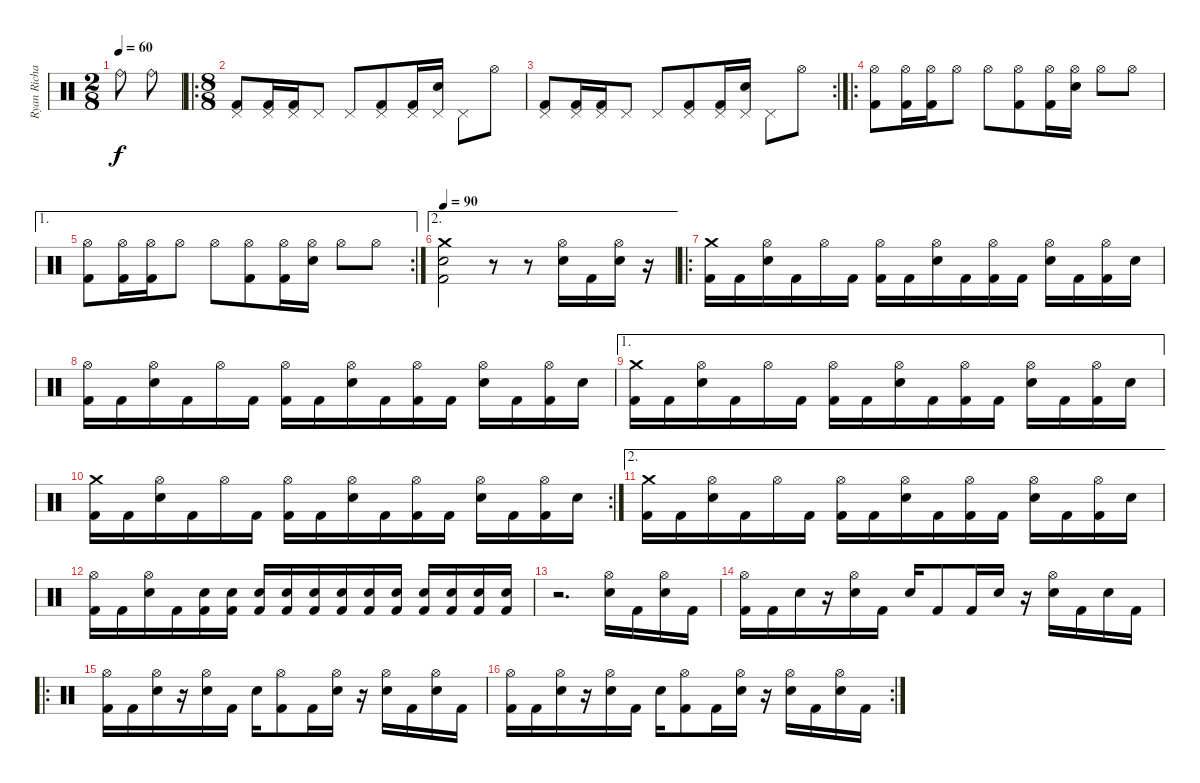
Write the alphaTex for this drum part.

\track ("Ryan Richards" "Ryan Richa") {instrument percussion}
\staff {score}
\articulation defaults
\ts (2 8)
\tempo 60
\clef neutral
\ks c "Ride (bell)".8{dy f} "Ride (bell)".8
|
\ro
\ts (8 8)
("Pedal Hi-Hat (hit)" "Kick (hit) 2").8 ("Pedal Hi-Hat (hit)" "Kick (hit) 2").16 ("Pedal Hi-Hat (hit)" "Kick (hit) 2").16 "Pedal Hi-Hat (hit)".8 "Pedal Hi-Hat (hit)".8 ("Pedal Hi-Hat (hit)" "Kick (hit) 2").8 ("Pedal Hi-Hat (hit)" "Kick (hit) 2").16 ("Pedal Hi-Hat (hit)" "Snare (hit) 2").16 "Pedal Hi-Hat (hit)".8 "Hi-Hat (open)".8 |
\rc 2
("Pedal Hi-Hat (hit)" "Kick (hit) 2").8 ("Pedal Hi-Hat (hit)" "Kick (hit) 2").16 ("Pedal Hi-Hat (hit)" "Kick (hit) 2").16 "Pedal Hi-Hat (hit)".8 "Pedal Hi-Hat (hit)".8 ("Pedal Hi-Hat (hit)" "Kick (hit) 2").8 ("Pedal Hi-Hat (hit)" "Kick (hit) 2").16 ("Pedal Hi-Hat (hit)" "Snare (hit) 2").16 "Pedal Hi-Hat (hit)".8 "Hi-Hat (open)".8 |
\ro
("Hi-Hat (open)" "Kick (hit) 2").8 ("Hi-Hat (open)" "Kick (hit) 2").16 ("Hi-Hat (open)" "Kick (hit) 2").16 "Hi-Hat (open)".8 "Hi-Hat (open)".8 ("Hi-Hat (open)" "Kick (hit) 2").8 ("Hi-Hat (open)" "Kick (hit) 2").16 ("Hi-Hat (open)" "Snare (hit) 2").16 "Hi-Hat (open)".8 "Hi-Hat (open)".8 |
\ae 1
\rc 2
("Hi-Hat (open)" "Kick (hit) 2").8 ("Hi-Hat (open)" "Kick (hit) 2").16 ("Hi-Hat (open)" "Kick (hit) 2").16 "Hi-Hat (open)".8 "Hi-Hat (open)".8 ("Hi-Hat (open)" "Kick (hit) 2").8 ("Hi-Hat (open)" "Kick (hit) 2").16 ("Hi-Hat (open)" "Snare (hit) 2").16 "Hi-Hat (open)".8 "Hi-Hat (open)".8 |
\ae 2
\tempo 90
("Crash medium (hit)" "Snare (hit) 2" "Kick (hit) 2").2 r.8 r.8 ("Hi-Hat (open)" "Snare (hit) 2").16 "Kick (hit) 2".16 ("Hi-Hat (open)" "Snare (hit) 2").16 r.16 |
\ro
("Crash medium (hit)" "Kick (hit) 2").16 "Kick (hit) 2".16 ("Hi-Hat (open)" "Snare (hit) 2").16 "Kick (hit) 2".16 "Hi-Hat (open)".16 "Kick (hit) 2".16 ("Hi-Hat (open)" "Kick (hit) 2").16 "Kick (hit) 2".16 ("Hi-Hat (open)" "Snare (hit) 2").16 "Kick (hit) 2".16 ("Hi-Hat (open)" "Kick (hit) 2").16 "Kick (hit) 2".16 ("Hi-Hat (open)" "Snare (hit) 2").16 "Kick (hit) 2".16 ("Hi-Hat (open)" "Kick (hit) 2").16 "Snare (hit) 2".16 |
("Hi-Hat (open)" "Kick (hit) 2").16 "Kick (hit) 2".16 ("Hi-Hat (open)" "Snare (hit) 2").16 "Kick (hit) 2".16 "Hi-Hat (open)".16 "Kick (hit) 2".16 ("Hi-Hat (open)" "Kick (hit) 2").16 "Kick (hit) 2".16 ("Hi-Hat (open)" "Snare (hit) 2").16 "Kick (hit) 2".16 ("Hi-Hat (open)" "Kick (hit) 2").16 "Kick (hit) 2".16 ("Hi-Hat (open)" "Snare (hit) 2").16 "Kick (hit) 2".16 ("Hi-Hat (open)" "Kick (hit) 2").16 "Snare (hit) 2".16 |
\ae 1
("Crash medium (hit)" "Kick (hit) 2").16 "Kick (hit) 2".16 ("Hi-Hat (open)" "Snare (hit) 2").16 "Kick (hit) 2".16 "Hi-Hat (open)".16 "Kick (hit) 2".16 ("Hi-Hat (open)" "Kick (hit) 2").16 "Kick (hit) 2".16 ("Hi-Hat (open)" "Snare (hit) 2").16 "Kick (hit) 2".16 ("Hi-Hat (open)" "Kick (hit) 2").16 "Kick (hit) 2".16 ("Hi-Hat (open)" "Snare (hit) 2").16 "Kick (hit) 2".16 ("Hi-Hat (open)" "Kick (hit) 2").16 "Snare (hit) 2".16 |
\rc 2
("Crash medium (hit)" "Kick (hit) 2").16 "Kick (hit) 2".16 ("Hi-Hat (open)" "Snare (hit) 2").16 "Kick (hit) 2".16 "Hi-Hat (open)".16 "Kick (hit) 2".16 ("Hi-Hat (open)" "Kick (hit) 2").16 "Kick (hit) 2".16 ("Hi-Hat (open)" "Snare (hit) 2").16 "Kick (hit) 2".16 ("Hi-Hat (open)" "Kick (hit) 2").16 "Kick (hit) 2".16 ("Hi-Hat (open)" "Snare (hit) 2").16 "Kick (hit) 2".16 ("Hi-Hat (open)" "Kick (hit) 2").16 "Snare (hit) 2".16 |
\ae 2
("Crash medium (hit)" "Kick (hit) 2").16 "Kick (hit) 2".16 ("Hi-Hat (open)" "Snare (hit) 2").16 "Kick (hit) 2".16 "Hi-Hat (open)".16 "Kick (hit) 2".16 ("Hi-Hat (open)" "Kick (hit) 2").16 "Kick (hit) 2".16 ("Hi-Hat (open)" "Snare (hit) 2").16 "Kick (hit) 2".16 ("Hi-Hat (open)" "Kick (hit) 2").16 "Kick (hit) 2".16 ("Hi-Hat (open)" "Snare (hit) 2").16 "Kick (hit) 2".16 ("Hi-Hat (open)" "Kick (hit) 2").16 "Snare (hit) 2".16 |
("Hi-Hat (open)" "Kick (hit) 2").16 "Kick (hit) 2".16 ("Hi-Hat (open)" "Snare (hit) 2").16 "Kick (hit) 2".16 ("Snare (hit) 2" "Kick (hit) 2").16 ("Snare (hit) 2" "Kick (hit) 2").16 ("Snare (hit) 2" "Kick (hit) 2").16 ("Snare (hit) 2" "Kick (hit) 2").16 ("Snare (hit) 2" "Kick (hit) 2").16 ("Snare (hit) 2" "Kick (hit) 2").16 ("Snare (hit) 2" "Kick (hit) 2").16 ("Snare (hit) 2" "Kick (hit) 2").16 ("Snare (hit) 2" "Kick (hit) 2").16 ("Snare (hit) 2" "Kick (hit) 2").16 ("Snare (hit) 2" "Kick (hit) 2").16 ("Snare (hit) 2" "Kick (hit) 2").16 |
r.2{d} ("Hi-Hat (open)" "Snare (hit) 2").16 "Kick (hit) 2".16 ("Hi-Hat (open)" "Snare (hit) 2").16 "Kick (hit) 2".16 |
("Hi-Hat (open)" "Kick (hit) 2").16 "Kick (hit) 2".16 "Snare (hit) 2".16 r.16 ("Hi-Hat (open)" "Snare (hit) 2").16 "Kick (hit) 2".16 "Snare (hit) 2".16 "Kick (hit) 2".8 "Kick (hit) 2".16 "Snare (hit) 2".16 r.16 ("Hi-Hat (open)" "Snare (hit) 2").16 "Kick (hit) 2".16 "Snare (hit) 2".16 "Kick (hit) 2".16 |
\ro
("Hi-Hat (open)" "Kick (hit) 2").16 "Kick (hit) 2".16 ("Hi-Hat (open)" "Snare (hit) 2").16 r.16 ("Hi-Hat (open)" "Snare (hit) 2").16 "Kick (hit) 2".16 "Snare (hit) 2".16 ("Hi-Hat (open)" "Kick (hit) 2").8 "Kick (hit) 2".16 ("Hi-Hat (open)" "Snare (hit) 2").16 r.16 ("Hi-Hat (open)" "Snare (hit) 2").16 "Kick (hit) 2".16 ("Hi-Hat (open)" "Snare (hit) 2").16 "Kick (hit) 2".16 |
\rc 2
("Hi-Hat (open)" "Kick (hit) 2").16 "Kick (hit) 2".16 ("Hi-Hat (open)" "Snare (hit) 2").16 r.16 ("Hi-Hat (open)" "Snare (hit) 2").16 "Kick (hit) 2".16 "Snare (hit) 2".16 ("Hi-Hat (open)" "Kick (hit) 2").8 "Kick (hit) 2".16 ("Hi-Hat (open)" "Snare (hit) 2").16 r.16 ("Hi-Hat (open)" "Snare (hit) 2").16 "Kick (hit) 2".16 ("Hi-Hat (open)" "Snare (hit) 2").16 "Kick (hit) 2".16
